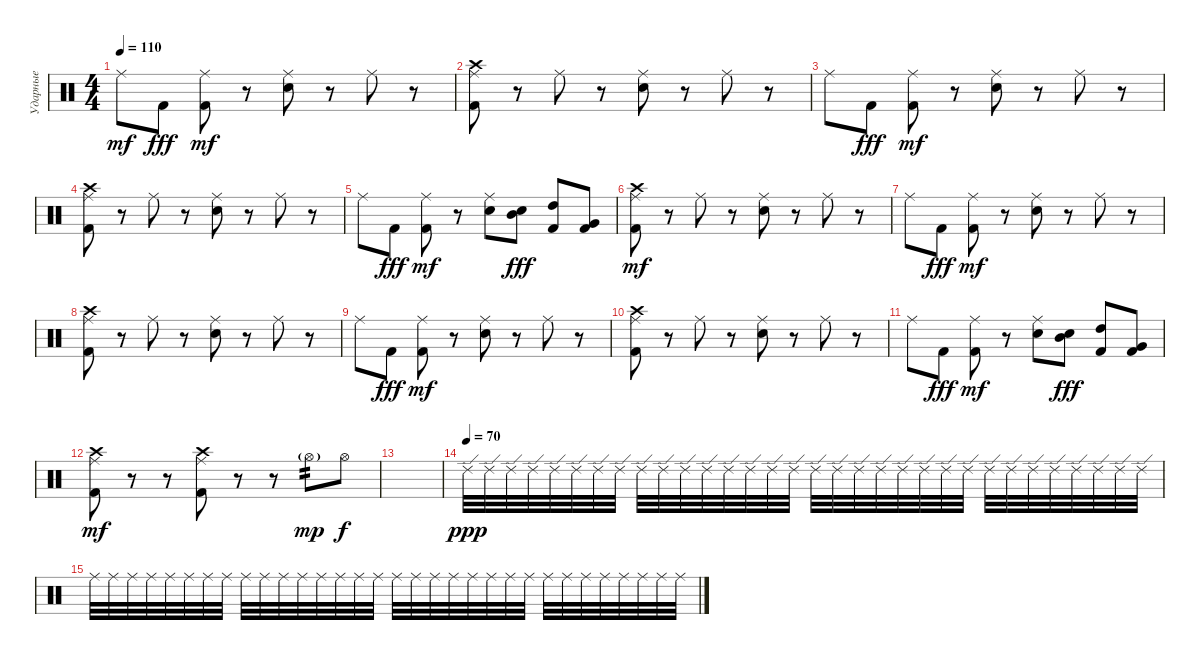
\track ("Ударные" "Ударные") {instrument percussion}
\staff {score}
\articulation defaults
\ts (4 4)
\section ("" "")
\tempo 110
\clef neutral
\ks c "Ride (middle)".8{dy mf} "Kick (hit) 2".8{dy fff}
("Kick (hit) 2" "Ride (middle)").8{dy mf} r.8 ("Electric Snare (hit)" "Ride (middle)").8 r.8 "Ride (middle)".8 r.8 |
("Kick (hit) 2" "Crash high (hit)" "Ride (middle)").8 r.8 "Ride (middle)".8 r.8 ("Electric Snare (hit)" "Ride (middle)").8 r.8 "Ride (middle)".8 r.8 |
"Ride (middle)".8 "Kick (hit) 2".8{dy fff} ("Kick (hit) 2" "Ride (middle)").8{dy mf} r.8 ("Electric Snare (hit)" "Ride (middle)").8 r.8 "Ride (middle)".8 r.8 |
("Kick (hit) 2" "Crash high (hit)" "Ride (middle)").8 r.8 "Ride (middle)".8 r.8 ("Electric Snare (hit)" "Ride (middle)").8 r.8 "Ride (middle)".8 r.8 |
"Ride (middle)".8 "Kick (hit) 2".8{dy fff} ("Kick (hit) 2" "Ride (middle)").8{dy mf} r.8 ("Electric Snare (hit)" "Ride (middle)").8 ("Electric Snare (hit)" "Mid Tom (hit)").8{dy fff} ("Kick (hit) 2" "High Tom (hit)").8 ("Kick (hit) 2" "Very Low Tom (hit)").8 |
("Kick (hit) 2" "Crash high (hit)" "Ride (middle)").8{dy mf} r.8 "Ride (middle)".8 r.8 ("Electric Snare (hit)" "Ride (middle)").8 r.8 "Ride (middle)".8 r.8 |
"Ride (middle)".8 "Kick (hit) 2".8{dy fff} ("Kick (hit) 2" "Ride (middle)").8{dy mf} r.8 ("Electric Snare (hit)" "Ride (middle)").8 r.8 "Ride (middle)".8 r.8 |
("Kick (hit) 2" "Crash high (hit)" "Ride (middle)").8 r.8 "Ride (middle)".8 r.8 ("Electric Snare (hit)" "Ride (middle)").8 r.8 "Ride (middle)".8 r.8 |
"Ride (middle)".8 "Kick (hit) 2".8{dy fff} ("Kick (hit) 2" "Ride (middle)").8{dy mf} r.8 ("Electric Snare (hit)" "Ride (middle)").8 r.8 "Ride (middle)".8 r.8 |
("Kick (hit) 2" "Crash high (hit)" "Ride (middle)").8 r.8 "Ride (middle)".8 r.8 ("Electric Snare (hit)" "Ride (middle)").8 r.8 "Ride (middle)".8 r.8 |
"Ride (middle)".8 "Kick (hit) 2".8{dy fff} ("Kick (hit) 2" "Ride (middle)").8{dy mf} r.8 ("Electric Snare (hit)" "Ride (middle)").8 ("Electric Snare (hit)" "Mid Tom (hit)").8{dy fff} ("Kick (hit) 2" "High Tom (hit)").8 ("Kick (hit) 2" "Very Low Tom (hit)").8 |
("Kick (hit) 2" "Crash high (hit)" "Ride (middle)").8{dy mf} r.8 r.8 ("Kick (hit) 2" "Crash high (hit)" "Ride (middle)").8 r.8 r.8 "Hi-Hat (open)"{g}.8{tp 2 dy mp} "Hi-Hat (open)".8{dy f} |
|
\tempo (70)
"Ride (edge) 2".32{dy ppp} "Ride (edge) 2".32 "Ride (edge) 2".32 "Ride (edge) 2".32 "Ride (edge) 2".32 "Ride (edge) 2".32 "Ride (edge) 2".32 "Ride (edge) 2".32 "Ride (edge) 2".32 "Ride (edge) 2".32 "Ride (edge) 2".32 "Ride (edge) 2".32 "Ride (edge) 2".32 "Ride (edge) 2".32 "Ride (edge) 2".32 "Ride (edge) 2".32 "Ride (edge) 2".32 "Ride (edge) 2".32 "Ride (edge) 2".32 "Ride (edge) 2".32 "Ride (edge) 2".32 "Ride (edge) 2".32 "Ride (edge) 2".32 "Ride (edge) 2".32 "Ride (edge) 2".32 "Ride (edge) 2".32 "Ride (edge) 2".32 "Ride (edge) 2".32 "Ride (edge) 2".32 "Ride (edge) 2".32 "Ride (edge) 2".32 "Ride (edge) 2".32 |
"Ride (middle)".32 "Ride (middle)".32 "Ride (middle)".32 "Ride (middle)".32 "Ride (middle)".32 "Ride (middle)".32 "Ride (middle)".32 "Ride (middle)".32 "Ride (middle)".32 "Ride (middle)".32 "Ride (middle)".32 "Ride (middle)".32 "Ride (middle)".32 "Ride (middle)".32 "Ride (middle)".32 "Ride (middle)".32 "Ride (middle)".32 "Ride (middle)".32 "Ride (middle)".32 "Ride (middle)".32 "Ride (middle)".32 "Ride (middle)".32 "Ride (middle)".32 "Ride (middle)".32 "Ride (middle)".32 "Ride (middle)".32 "Ride (middle)".32 "Ride (middle)".32 "Ride (middle)".32 "Ride (middle)".32 "Ride (middle)".32 "Ride (middle)".32
